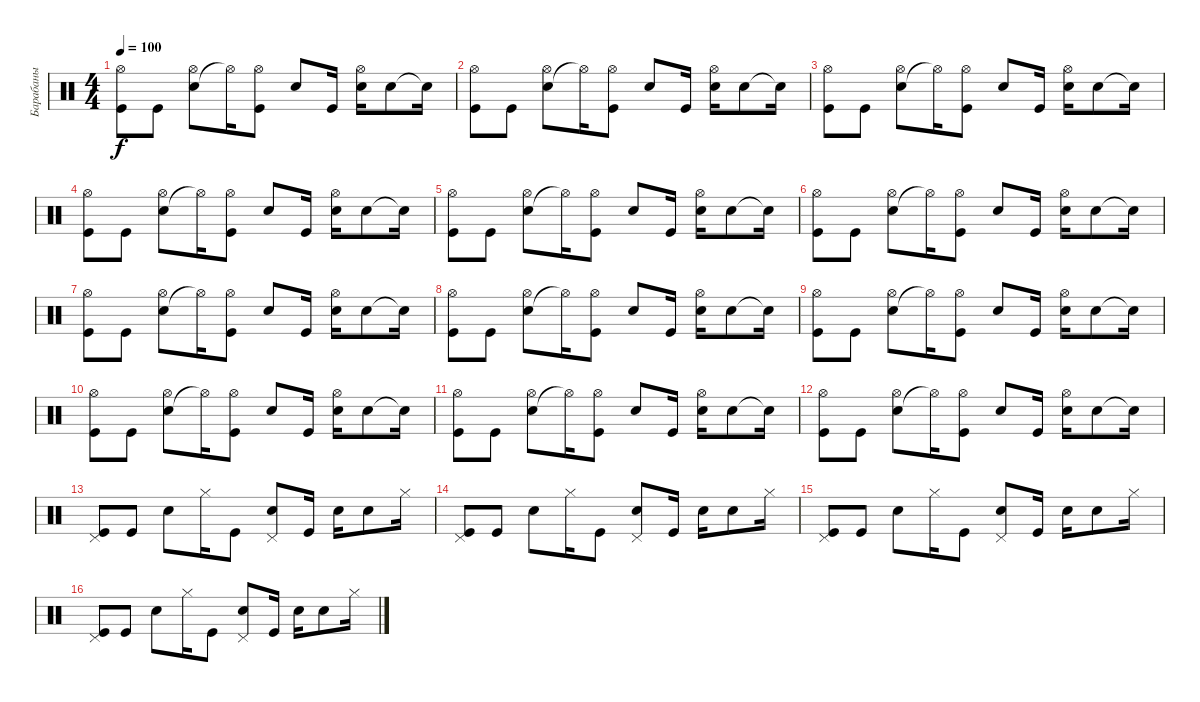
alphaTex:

\track ("Барабаны" "Барабаны") {instrument percussion}
\staff {score}
\articulation defaults
\ts (4 4)
\tempo 100
\clef neutral
\ks c
("Kick (hit)" "Hi-Hat (open)").8{dy f} "Kick (hit)".8 ("Snare (hit) 2" "Hi-Hat (open)").8 "Hi-Hat (open)"{t}.16 ("Kick (hit)" "Hi-Hat (open)").8 "Snare (hit) 2".8 "Kick (hit)".16 ("Snare (hit) 2" "Hi-Hat (open)").16 "Snare (hit) 2".8 "Snare (hit) 2"{t}.16 |
("Kick (hit)" "Hi-Hat (open)").8 "Kick (hit)".8 ("Snare (hit) 2" "Hi-Hat (open)").8 "Hi-Hat (open)"{t}.16 ("Kick (hit)" "Hi-Hat (open)").8 "Snare (hit) 2".8 "Kick (hit)".16 ("Snare (hit) 2" "Hi-Hat (open)").16 "Snare (hit) 2".8 "Snare (hit) 2"{t}.16 |
("Kick (hit)" "Hi-Hat (open)").8 "Kick (hit)".8 ("Snare (hit) 2" "Hi-Hat (open)").8 "Hi-Hat (open)"{t}.16 ("Kick (hit)" "Hi-Hat (open)").8 "Snare (hit) 2".8 "Kick (hit)".16 ("Snare (hit) 2" "Hi-Hat (open)").16 "Snare (hit) 2".8 "Snare (hit) 2"{t}.16 |
("Kick (hit)" "Hi-Hat (open)").8 "Kick (hit)".8 ("Snare (hit) 2" "Hi-Hat (open)").8 "Hi-Hat (open)"{t}.16 ("Kick (hit)" "Hi-Hat (open)").8 "Snare (hit) 2".8 "Kick (hit)".16 ("Snare (hit) 2" "Hi-Hat (open)").16 "Snare (hit) 2".8 "Snare (hit) 2"{t}.16 |
("Kick (hit)" "Hi-Hat (open)").8 "Kick (hit)".8 ("Snare (hit) 2" "Hi-Hat (open)").8 "Hi-Hat (open)"{t}.16 ("Kick (hit)" "Hi-Hat (open)").8 "Snare (hit) 2".8 "Kick (hit)".16 ("Snare (hit) 2" "Hi-Hat (open)").16 "Snare (hit) 2".8 "Snare (hit) 2"{t}.16 |
("Kick (hit)" "Hi-Hat (open)").8 "Kick (hit)".8 ("Snare (hit) 2" "Hi-Hat (open)").8 "Hi-Hat (open)"{t}.16 ("Kick (hit)" "Hi-Hat (open)").8 "Snare (hit) 2".8 "Kick (hit)".16 ("Snare (hit) 2" "Hi-Hat (open)").16 "Snare (hit) 2".8 "Snare (hit) 2"{t}.16 |
("Kick (hit)" "Hi-Hat (open)").8 "Kick (hit)".8 ("Snare (hit) 2" "Hi-Hat (open)").8 "Hi-Hat (open)"{t}.16 ("Kick (hit)" "Hi-Hat (open)").8 "Snare (hit) 2".8 "Kick (hit)".16 ("Snare (hit) 2" "Hi-Hat (open)").16 "Snare (hit) 2".8 "Snare (hit) 2"{t}.16 |
("Kick (hit)" "Hi-Hat (open)").8 "Kick (hit)".8 ("Snare (hit) 2" "Hi-Hat (open)").8 "Hi-Hat (open)"{t}.16 ("Kick (hit)" "Hi-Hat (open)").8 "Snare (hit) 2".8 "Kick (hit)".16 ("Snare (hit) 2" "Hi-Hat (open)").16 "Snare (hit) 2".8 "Snare (hit) 2"{t}.16 |
("Kick (hit)" "Hi-Hat (open)").8 "Kick (hit)".8 ("Snare (hit) 2" "Hi-Hat (open)").8 "Hi-Hat (open)"{t}.16 ("Kick (hit)" "Hi-Hat (open)").8 "Snare (hit) 2".8 "Kick (hit)".16 ("Snare (hit) 2" "Hi-Hat (open)").16 "Snare (hit) 2".8 "Snare (hit) 2"{t}.16 |
("Kick (hit)" "Hi-Hat (open)").8 "Kick (hit)".8 ("Snare (hit) 2" "Hi-Hat (open)").8 "Hi-Hat (open)"{t}.16 ("Kick (hit)" "Hi-Hat (open)").8 "Snare (hit) 2".8 "Kick (hit)".16 ("Snare (hit) 2" "Hi-Hat (open)").16 "Snare (hit) 2".8 "Snare (hit) 2"{t}.16 |
("Kick (hit)" "Hi-Hat (open)").8 "Kick (hit)".8 ("Snare (hit) 2" "Hi-Hat (open)").8 "Hi-Hat (open)"{t}.16 ("Kick (hit)" "Hi-Hat (open)").8 "Snare (hit) 2".8 "Kick (hit)".16 ("Snare (hit) 2" "Hi-Hat (open)").16 "Snare (hit) 2".8 "Snare (hit) 2"{t}.16 |
("Kick (hit)" "Hi-Hat (open)").8 "Kick (hit)".8 ("Snare (hit) 2" "Hi-Hat (open)").8 "Hi-Hat (open)"{t}.16 ("Kick (hit)" "Hi-Hat (open)").8 "Snare (hit) 2".8 "Kick (hit)".16 ("Snare (hit) 2" "Hi-Hat (open)").16 "Snare (hit) 2".8 "Snare (hit) 2"{t}.16 |
("Kick (hit)" "Pedal Hi-Hat (hit)").8 "Kick (hit)".8 "Snare (hit) 2".8 "Hi-Hat (closed)".16 "Kick (hit)".8 ("Snare (hit) 2" "Pedal Hi-Hat (hit)").8 "Kick (hit)".16 "Snare (hit) 2".16 "Snare (hit) 2".8 "Hi-Hat (closed)".16 |
("Kick (hit)" "Pedal Hi-Hat (hit)").8 "Kick (hit)".8 "Snare (hit) 2".8 "Hi-Hat (closed)".16 "Kick (hit)".8 ("Snare (hit) 2" "Pedal Hi-Hat (hit)").8 "Kick (hit)".16 "Snare (hit) 2".16 "Snare (hit) 2".8 "Hi-Hat (closed)".16 |
("Kick (hit)" "Pedal Hi-Hat (hit)").8 "Kick (hit)".8 "Snare (hit) 2".8 "Hi-Hat (closed)".16 "Kick (hit)".8 ("Snare (hit) 2" "Pedal Hi-Hat (hit)").8 "Kick (hit)".16 "Snare (hit) 2".16 "Snare (hit) 2".8 "Hi-Hat (closed)".16 |
("Kick (hit)" "Pedal Hi-Hat (hit)").8 "Kick (hit)".8 "Snare (hit) 2".8 "Hi-Hat (closed)".16 "Kick (hit)".8 ("Snare (hit) 2" "Pedal Hi-Hat (hit)").8 "Kick (hit)".16 "Snare (hit) 2".16 "Snare (hit) 2".8 "Hi-Hat (closed)".16
